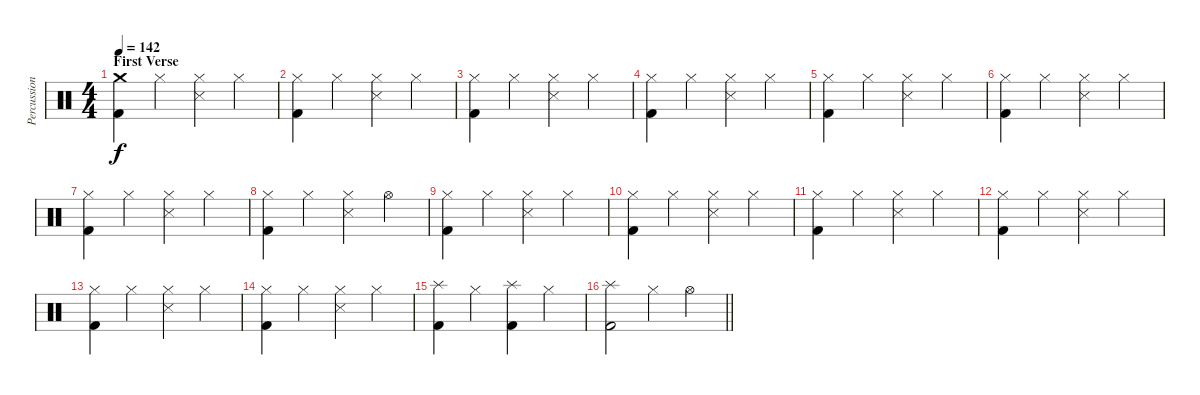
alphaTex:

\track ("Percussions" "Percussion") {instrument percussion}
\staff {score}
\articulation defaults
\ts (4 4)
\section ("" "First Verse")
\tempo 142
\clef neutral
\ks c
("Crash medium (hit)" "Kick (hit) 2").4{dy f} "Hi-Hat (closed)".4 ("Hi-Hat (closed)" "Metronome (hit)").4 "Hi-Hat (closed)".4 |
("Hi-Hat (closed)" "Kick (hit) 2").4 "Hi-Hat (closed)".4 ("Hi-Hat (closed)" "Metronome (hit)").4 "Hi-Hat (closed)".4 |
("Hi-Hat (closed)" "Kick (hit) 2").4 "Hi-Hat (closed)".4 ("Hi-Hat (closed)" "Metronome (hit)").4 "Hi-Hat (closed)".4 |
("Hi-Hat (closed)" "Kick (hit) 2").4 "Hi-Hat (closed)".4 ("Hi-Hat (closed)" "Metronome (hit)").4 "Hi-Hat (closed)".4 |
("Hi-Hat (closed)" "Kick (hit) 2").4 "Hi-Hat (closed)".4 ("Hi-Hat (closed)" "Metronome (hit)").4 "Hi-Hat (closed)".4 |
("Hi-Hat (closed)" "Kick (hit) 2").4 "Hi-Hat (closed)".4 ("Hi-Hat (closed)" "Metronome (hit)").4 "Hi-Hat (closed)".4 |
("Hi-Hat (closed)" "Kick (hit) 2").4 "Hi-Hat (closed)".4 ("Hi-Hat (closed)" "Metronome (hit)").4 "Hi-Hat (closed)".4 |
("Hi-Hat (closed)" "Kick (hit) 2").4 "Hi-Hat (closed)".4 ("Hi-Hat (closed)" "Metronome (hit)").4 "Hi-Hat (open)".4 |
("Hi-Hat (closed)" "Kick (hit) 2").4 "Hi-Hat (closed)".4 ("Hi-Hat (closed)" "Metronome (hit)").4 "Hi-Hat (closed)".4 |
("Hi-Hat (closed)" "Kick (hit) 2").4 "Hi-Hat (closed)".4 ("Hi-Hat (closed)" "Metronome (hit)").4 "Hi-Hat (closed)".4 |
("Hi-Hat (closed)" "Kick (hit) 2").4 "Hi-Hat (closed)".4 ("Hi-Hat (closed)" "Metronome (hit)").4 "Hi-Hat (closed)".4 |
("Hi-Hat (closed)" "Kick (hit) 2").4 "Hi-Hat (closed)".4 ("Hi-Hat (closed)" "Metronome (hit)").4 "Hi-Hat (closed)".4 |
("Hi-Hat (closed)" "Kick (hit) 2").4 "Hi-Hat (closed)".4 ("Hi-Hat (closed)" "Metronome (hit)").4 "Hi-Hat (closed)".4 |
("Hi-Hat (closed)" "Kick (hit) 2").4 "Hi-Hat (closed)".4 ("Hi-Hat (closed)" "Metronome (hit)").4 "Hi-Hat (closed)".4 |
("Splash (hit)" "Kick (hit) 2").4 "Hi-Hat (closed)".4 ("Splash (hit)" "Kick (hit) 2").4 "Hi-Hat (closed)".4 |
\barLineRight lightlight
("Splash (hit)" "Kick (hit) 2").2 "Hi-Hat (closed)".4 "Hi-Hat (open)".4
